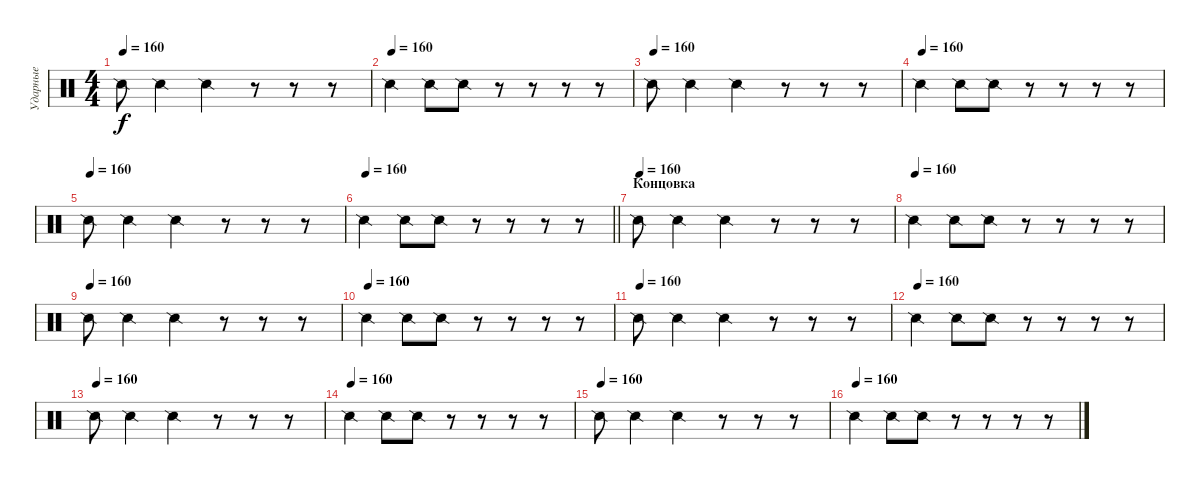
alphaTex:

\track ("Ударные" "Ударные") {instrument percussion}
\staff {score}
\articulation defaults
\ts (4 4)
\tempo 160
\clef neutral
\ks c "Snare (side stick) 2".8{dy f} "Snare (side stick) 2".4 "Snare (side stick) 2".4
r.8 r.8 r.8 |
\tempo (160)
"Snare (side stick) 2".4 "Snare (side stick) 2".8 "Snare (side stick) 2".8 r.8 r.8 r.8 r.8 |
\tempo (160)
"Snare (side stick) 2".8 "Snare (side stick) 2".4 "Snare (side stick) 2".4 r.8 r.8 r.8 |
\tempo (160)
"Snare (side stick) 2".4 "Snare (side stick) 2".8 "Snare (side stick) 2".8 r.8 r.8 r.8 r.8 |
\tempo (160)
"Snare (side stick) 2".8 "Snare (side stick) 2".4 "Snare (side stick) 2".4 r.8 r.8 r.8 |
\tempo 160
\barLineRight lightlight "Snare (side stick) 2".4 "Snare (side stick) 2".8 "Snare (side stick) 2".8
r.8 r.8 r.8 r.8 |
\section ("" "Концовка")
\tempo (160)
"Snare (side stick) 2".8 "Snare (side stick) 2".4 "Snare (side stick) 2".4 r.8 r.8 r.8 |
\tempo (160)
"Snare (side stick) 2".4 "Snare (side stick) 2".8 "Snare (side stick) 2".8 r.8 r.8 r.8 r.8 |
\tempo (160)
"Snare (side stick) 2".8 "Snare (side stick) 2".4 "Snare (side stick) 2".4 r.8 r.8 r.8 |
\tempo (160)
"Snare (side stick) 2".4 "Snare (side stick) 2".8 "Snare (side stick) 2".8 r.8 r.8 r.8 r.8 |
\tempo (160)
"Snare (side stick) 2".8 "Snare (side stick) 2".4 "Snare (side stick) 2".4 r.8 r.8 r.8 |
\tempo (160)
"Snare (side stick) 2".4 "Snare (side stick) 2".8 "Snare (side stick) 2".8 r.8 r.8 r.8 r.8 |
\tempo (160)
"Snare (side stick) 2".8 "Snare (side stick) 2".4 "Snare (side stick) 2".4 r.8 r.8 r.8 |
\tempo (160)
"Snare (side stick) 2".4 "Snare (side stick) 2".8 "Snare (side stick) 2".8 r.8 r.8 r.8 r.8 |
\tempo (160)
"Snare (side stick) 2".8 "Snare (side stick) 2".4 "Snare (side stick) 2".4 r.8 r.8 r.8 |
\tempo (160)
"Snare (side stick) 2".4 "Snare (side stick) 2".8 "Snare (side stick) 2".8 r.8 r.8 r.8 r.8
